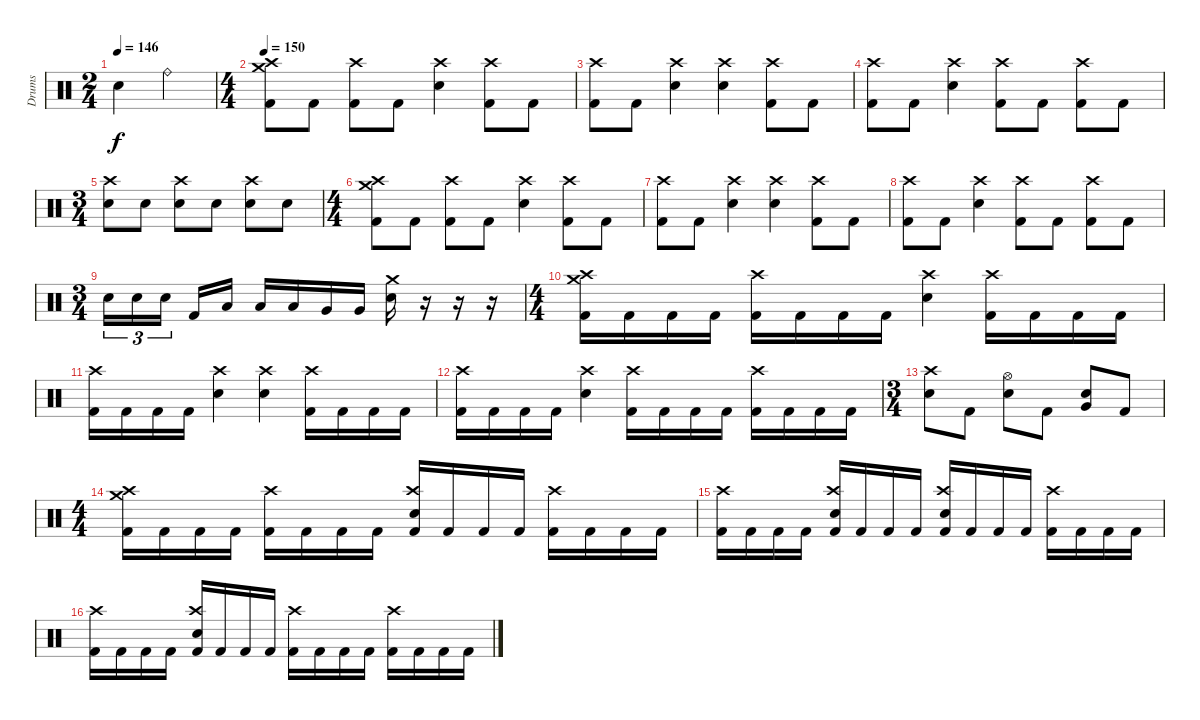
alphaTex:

\track ("Drums" "Drums") {instrument percussion}
\staff {score}
\articulation defaults
\ts (2 4)
\tempo 146
\clef neutral
\ks c "Snare (hit) 2".4{dy f} "Ride (bell)".4
|
\ts (4 4)
\tempo 150
("Crash medium (hit)" "Crash high (hit)" "Kick (hit) 2").8 "Kick (hit) 2".8 ("Crash high (hit)" "Kick (hit) 2").8 "Kick (hit) 2".8 ("Crash high (hit)" "Snare (hit) 2").4 ("Crash high (hit)" "Kick (hit) 2").8 "Kick (hit) 2".8 |
("Crash high (hit)" "Kick (hit) 2").8 "Kick (hit) 2".8 ("Crash high (hit)" "Snare (hit) 2").4 ("Crash high (hit)" "Snare (hit) 2").4 ("Crash high (hit)" "Kick (hit) 2").8 "Kick (hit) 2".8 |
("Crash high (hit)" "Kick (hit) 2").8 "Kick (hit) 2".8 ("Crash high (hit)" "Snare (hit) 2").4 ("Crash high (hit)" "Kick (hit) 2").8 "Kick (hit) 2".8 ("Crash high (hit)" "Kick (hit) 2").8 "Kick (hit) 2".8 |
\ts (3 4)
("Crash high (hit)" "Snare (hit) 2").8 "Snare (hit) 2".8 ("Crash high (hit)" "Snare (hit) 2").8 "Snare (hit) 2".8 ("Crash high (hit)" "Snare (hit) 2").8 "Snare (hit) 2".8 |
\ts (4 4)
("Crash medium (hit)" "Crash high (hit)" "Kick (hit) 2").8 "Kick (hit) 2".8 ("Crash high (hit)" "Kick (hit) 2").8 "Kick (hit) 2".8 ("Crash high (hit)" "Snare (hit) 2").4 ("Crash high (hit)" "Kick (hit) 2").8 "Kick (hit) 2".8 |
("Crash high (hit)" "Kick (hit) 2").8 "Kick (hit) 2".8 ("Crash high (hit)" "Snare (hit) 2").4 ("Crash high (hit)" "Snare (hit) 2").4 ("Crash high (hit)" "Kick (hit) 2").8 "Kick (hit) 2".8 |
("Crash high (hit)" "Kick (hit) 2").8 "Kick (hit) 2".8 ("Crash high (hit)" "Snare (hit) 2").4 ("Crash high (hit)" "Kick (hit) 2").8 "Kick (hit) 2".8 ("Crash high (hit)" "Kick (hit) 2").8 "Kick (hit) 2".8 |
\ts (3 4)
"Snare (hit) 2".16{tu (3 2)} "Snare (hit) 2".16{tu (3 2)} "Snare (hit) 2".16{tu (3 2) beam splitsecondary} "Kick (hit) 2".16 "Low Tom (hit)".16 "Low Tom (hit)".16 "Low Tom (hit)".16 "Very Low Tom (hit)".16 "Very Low Tom (hit)".16 ("Crash medium (hit)" "Snare (hit) 2").16 r.16 r.16 r.16 |
\ts (4 4)
("Crash medium (hit)" "Crash high (hit)" "Kick (hit) 2").16 "Kick (hit) 2".16 "Kick (hit) 2".16 "Kick (hit) 2".16 ("Crash high (hit)" "Kick (hit) 2").16 "Kick (hit) 2".16 "Kick (hit) 2".16 "Kick (hit) 2".16 ("Crash high (hit)" "Snare (hit) 2").4 ("Crash high (hit)" "Kick (hit) 2").16 "Kick (hit) 2".16 "Kick (hit) 2".16 "Kick (hit) 2".16 |
("Crash high (hit)" "Kick (hit) 2").16 "Kick (hit) 2".16 "Kick (hit) 2".16 "Kick (hit) 2".16 ("Crash high (hit)" "Snare (hit) 2").4 ("Crash high (hit)" "Snare (hit) 2").4 ("Crash high (hit)" "Kick (hit) 2").16 "Kick (hit) 2".16 "Kick (hit) 2".16 "Kick (hit) 2".16 |
("Crash high (hit)" "Kick (hit) 2").16 "Kick (hit) 2".16 "Kick (hit) 2".16 "Kick (hit) 2".16 ("Crash high (hit)" "Snare (hit) 2").4 ("Crash high (hit)" "Kick (hit) 2").16 "Kick (hit) 2".16 "Kick (hit) 2".16 "Kick (hit) 2".16 ("Crash high (hit)" "Kick (hit) 2").16 "Kick (hit) 2".16 "Kick (hit) 2".16 "Kick (hit) 2".16 |
\ts (3 4)
("Crash high (hit)" "Snare (hit) 2").8 "Kick (hit) 2".8 ("Hi-Hat (open)" "Snare (hit) 2").8 "Kick (hit) 2".8 ("Very Low Tom (hit)" "Snare (hit) 2").8 "Kick (hit) 2".8 |
\ts (4 4)
("Crash medium (hit)" "Crash high (hit)" "Kick (hit) 2").16 "Kick (hit) 2".16 "Kick (hit) 2".16 "Kick (hit) 2".16 ("Crash high (hit)" "Kick (hit) 2").16 "Kick (hit) 2".16 "Kick (hit) 2".16 "Kick (hit) 2".16 ("Crash high (hit)" "Snare (hit) 2" "Kick (hit) 2").16 "Kick (hit) 2".16 "Kick (hit) 2".16 "Kick (hit) 2".16 ("Crash high (hit)" "Kick (hit) 2").16 "Kick (hit) 2".16 "Kick (hit) 2".16 "Kick (hit) 2".16 |
("Crash high (hit)" "Kick (hit) 2").16 "Kick (hit) 2".16 "Kick (hit) 2".16 "Kick (hit) 2".16 ("Crash high (hit)" "Snare (hit) 2" "Kick (hit) 2").16 "Kick (hit) 2".16 "Kick (hit) 2".16 "Kick (hit) 2".16 ("Crash high (hit)" "Snare (hit) 2" "Kick (hit) 2").16 "Kick (hit) 2".16 "Kick (hit) 2".16 "Kick (hit) 2".16 ("Crash high (hit)" "Kick (hit) 2").16 "Kick (hit) 2".16 "Kick (hit) 2".16 "Kick (hit) 2".16 |
("Crash high (hit)" "Kick (hit) 2").16 "Kick (hit) 2".16 "Kick (hit) 2".16 "Kick (hit) 2".16 ("Crash high (hit)" "Snare (hit) 2" "Kick (hit) 2").16 "Kick (hit) 2".16 "Kick (hit) 2".16 "Kick (hit) 2".16 ("Crash high (hit)" "Kick (hit) 2").16 "Kick (hit) 2".16 "Kick (hit) 2".16 "Kick (hit) 2".16 ("Crash high (hit)" "Kick (hit) 2").16 "Kick (hit) 2".16 "Kick (hit) 2".16 "Kick (hit) 2".16
